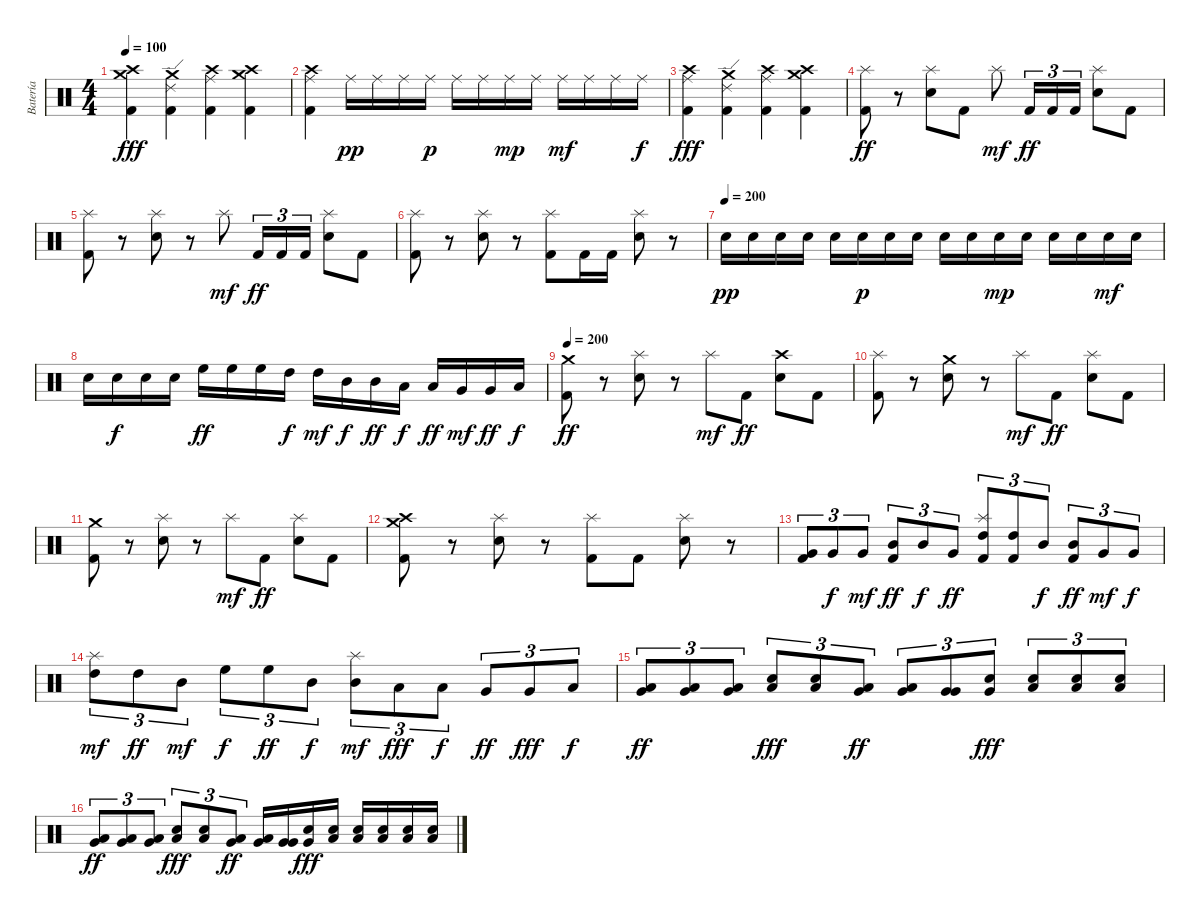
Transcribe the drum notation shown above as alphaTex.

\track ("Batería" "Batería") {instrument percussion}
\staff {score}
\articulation defaults
\ts (4 4)
\tempo 100
\clef neutral
\ks c
("Crash medium (hit)" "Crash high (hit)" "Kick (hit) 2").4{dy fff} ("Crash medium (hit)" "Ride (edge) 2" "Kick (hit) 2").4 ("Ride (middle)" "Crash high (hit)" "Kick (hit) 2").4 ("Crash medium (hit)" "Crash high (hit)" "Kick (hit) 2").4 |
("Ride (middle)" "Crash high (hit)" "Kick (hit) 2").4 "Ride (middle)".16{dy pp} "Ride (middle)".16 "Ride (middle)".16 "Ride (middle)".16{dy p} "Ride (middle)".16 "Ride (middle)".16 "Ride (middle)".16{dy mp} "Ride (middle)".16 "Ride (middle)".16{dy mf} "Ride (middle)".16 "Ride (middle)".16 "Ride (middle)".16{dy f} |
("Ride (middle)" "Crash high (hit)" "Kick (hit) 2").4{dy fff} ("Crash medium (hit)" "Ride (edge) 2" "Kick (hit) 2").4 ("Ride (middle)" "Crash high (hit)" "Kick (hit) 2").4 ("Crash medium (hit)" "Crash high (hit)" "Kick (hit) 2").4 |
("Splash (hit)" "Kick (hit) 2").8{dy ff} r.8 ("Splash (hit)" "Electric Snare (hit)").8 "Kick (hit) 2".8 "Splash (hit)".8{dy mf} "Kick (hit) 2".16{tu (3 2) dy ff} "Kick (hit) 2".16{tu (3 2)} "Kick (hit) 2".16{tu (3 2)} ("Splash (hit)" "Electric Snare (hit)").8 "Kick (hit) 2".8 |
("Splash (hit)" "Kick (hit) 2").8 r.8 ("Splash (hit)" "Electric Snare (hit)").8 r.8 "Splash (hit)".8{dy mf} "Kick (hit) 2".16{tu (3 2) dy ff} "Kick (hit) 2".16{tu (3 2)} "Kick (hit) 2".16{tu (3 2)} ("Splash (hit)" "Electric Snare (hit)").8 "Kick (hit) 2".8 |
("Splash (hit)" "Kick (hit) 2").8 r.8 ("Splash (hit)" "Electric Snare (hit)").8 r.8 ("Splash (hit)" "Kick (hit) 2").8 "Kick (hit) 2".16 "Kick (hit) 2".16 ("Splash (hit)" "Electric Snare (hit)").8 r.8 |
\tempo (200)
"Electric Snare (hit)".16{dy pp} "Electric Snare (hit)".16 "Electric Snare (hit)".16 "Electric Snare (hit)".16 "Electric Snare (hit)".16 "Electric Snare (hit)".16{dy p} "Electric Snare (hit)".16 "Electric Snare (hit)".16 "Electric Snare (hit)".16 "Electric Snare (hit)".16 "Electric Snare (hit)".16{dy mp} "Electric Snare (hit)".16 "Electric Snare (hit)".16 "Electric Snare (hit)".16 "Electric Snare (hit)".16{dy mf} "Electric Snare (hit)".16 |
"Electric Snare (hit)".16 "Electric Snare (hit)".16{dy f} "Electric Snare (hit)".16 "Electric Snare (hit)".16 "High Floor Tom (hit)".16{dy ff} "High Floor Tom (hit)".16 "High Floor Tom (hit)".16 "High Tom (hit)".16{dy f} "High Tom (hit)".16{dy mf} "Mid Tom (hit)".16{dy f} "Mid Tom (hit)".16{dy ff} "Low Tom (hit)".16{dy f} "Low Tom (hit)".16{dy ff} "Very Low Tom (hit)".16{dy mf} "Very Low Tom (hit)".16{dy ff} "Low Floor Tom (hit)".16{dy f} |
\tempo 200
("Crash medium (hit)" "Kick (hit) 2").8{dy ff} r.8 ("Splash (hit)" "Electric Snare (hit)").8 r.8 "Splash (hit)".8{dy mf} "Kick (hit) 2".8{dy ff} ("Crash high (hit)" "Electric Snare (hit)").8 "Kick (hit) 2".8 |
("Splash (hit)" "Kick (hit) 2").8 r.8 ("Crash medium (hit)" "Electric Snare (hit)").8 r.8 "Splash (hit)".8{dy mf} "Kick (hit) 2".8{dy ff} ("Splash (hit)" "Electric Snare (hit)").8 "Kick (hit) 2".8 |
("Crash medium (hit)" "Kick (hit) 2").8 r.8 ("Splash (hit)" "Electric Snare (hit)").8 r.8 "Splash (hit)".8{dy mf} "Kick (hit) 2".8{dy ff} ("Splash (hit)" "Electric Snare (hit)").8 "Kick (hit) 2".8 |
("Crash high (hit)" "Crash medium (hit)" "Kick (hit) 2").8 r.8 ("Splash (hit)" "Electric Snare (hit)").8 r.8 ("Splash (hit)" "Kick (hit) 2").8 "Kick (hit) 2".8 ("Splash (hit)" "Electric Snare (hit)").8 r.8 |
("Very Low Tom (hit)" "Kick (hit) 2").8{tu (3 2)} "Very Low Tom (hit)".8{tu (3 2) dy f} "Very Low Tom (hit)".8{tu (3 2) dy mf} ("Mid Tom (hit)" "Kick (hit) 2").8{tu (3 2) dy ff beam Up} "Mid Tom (hit)".8{tu (3 2) dy f beam Up} "Very Low Tom (hit)".8{tu (3 2) dy ff beam Up} ("High Tom (hit)" "Splash (hit)" "Kick (hit) 2").8{tu (3 2) beam Up} ("High Tom (hit)" "Kick (hit) 2").8{tu (3 2) beam Up} "Mid Tom (hit)".8{tu (3 2) dy f beam Up} ("Mid Tom (hit)" "Kick (hit) 2").8{tu (3 2) dy ff beam Up} "Very Low Tom (hit)".8{tu (3 2) dy mf beam Up} "Very Low Tom (hit)".8{tu (3 2) dy f beam Up} |
("Splash (hit)" "High Tom (hit)").8{tu (3 2) dy mf} "High Tom (hit)".8{tu (3 2) dy ff} "Mid Tom (hit)".8{tu (3 2) dy mf} "High Floor Tom (hit)".8{tu (3 2) dy f} "High Floor Tom (hit)".8{tu (3 2) dy ff} "Mid Tom (hit)".8{tu (3 2) dy f} ("Mid Tom (hit)" "Splash (hit)").8{tu (3 2) dy mf} "Low Tom (hit)".8{tu (3 2) dy fff} "Low Tom (hit)".8{tu (3 2) dy f} "Very Low Tom (hit)".8{tu (3 2) dy ff} "Very Low Tom (hit)".8{tu (3 2) dy fff} "Low Tom (hit)".8{tu (3 2) dy f} |
("Low Tom (hit)" "Very Low Tom (hit)").8{tu (3 2) dy ff} ("Low Tom (hit)" "Very Low Tom (hit)").8{tu (3 2)} ("Low Tom (hit)" "Very Low Tom (hit)").8{tu (3 2)} ("Low Tom (hit)" "Electric Snare (hit)").8{tu (3 2) dy fff} ("Low Tom (hit)" "Electric Snare (hit)").8{tu (3 2)} ("Low Tom (hit)" "Very Low Tom (hit)").8{tu (3 2) dy ff} ("Low Tom (hit)" "Very Low Tom (hit)").8{tu (3 2)} ("Very Low Tom (hit)" "Very Low Tom (hit)").8{tu (3 2)} ("Very Low Tom (hit)" "Electric Snare (hit)").8{tu (3 2) dy fff} ("Low Floor Tom (hit)" "Electric Snare (hit)").8{tu (3 2) beam Up} ("Low Floor Tom (hit)" "Electric Snare (hit)").8{tu (3 2) beam Up} ("Low Floor Tom (hit)" "Electric Snare (hit)").8{tu (3 2) beam Up} |
("Low Tom (hit)" "Very Low Tom (hit)").8{tu (3 2) dy ff} ("Low Tom (hit)" "Very Low Tom (hit)").8{tu (3 2)} ("Low Tom (hit)" "Very Low Tom (hit)").8{tu (3 2)} ("Low Tom (hit)" "Electric Snare (hit)").8{tu (3 2) dy fff} ("Low Tom (hit)" "Electric Snare (hit)").8{tu (3 2)} ("Low Tom (hit)" "Very Low Tom (hit)").8{tu (3 2) dy ff} ("Low Tom (hit)" "Very Low Tom (hit)").16 ("Very Low Tom (hit)" "Very Low Tom (hit)").16 ("Very Low Tom (hit)" "Electric Snare (hit)").16{dy fff} ("Low Floor Tom (hit)" "Electric Snare (hit)").16{beam Up} ("Low Floor Tom (hit)" "Electric Snare (hit)").16{beam Up} ("Low Floor Tom (hit)" "Electric Snare (hit)").16{beam Up} ("Low Floor Tom (hit)" "Electric Snare (hit)").16{beam Up} ("Low Floor Tom (hit)" "Electric Snare (hit)").16{beam Up}
